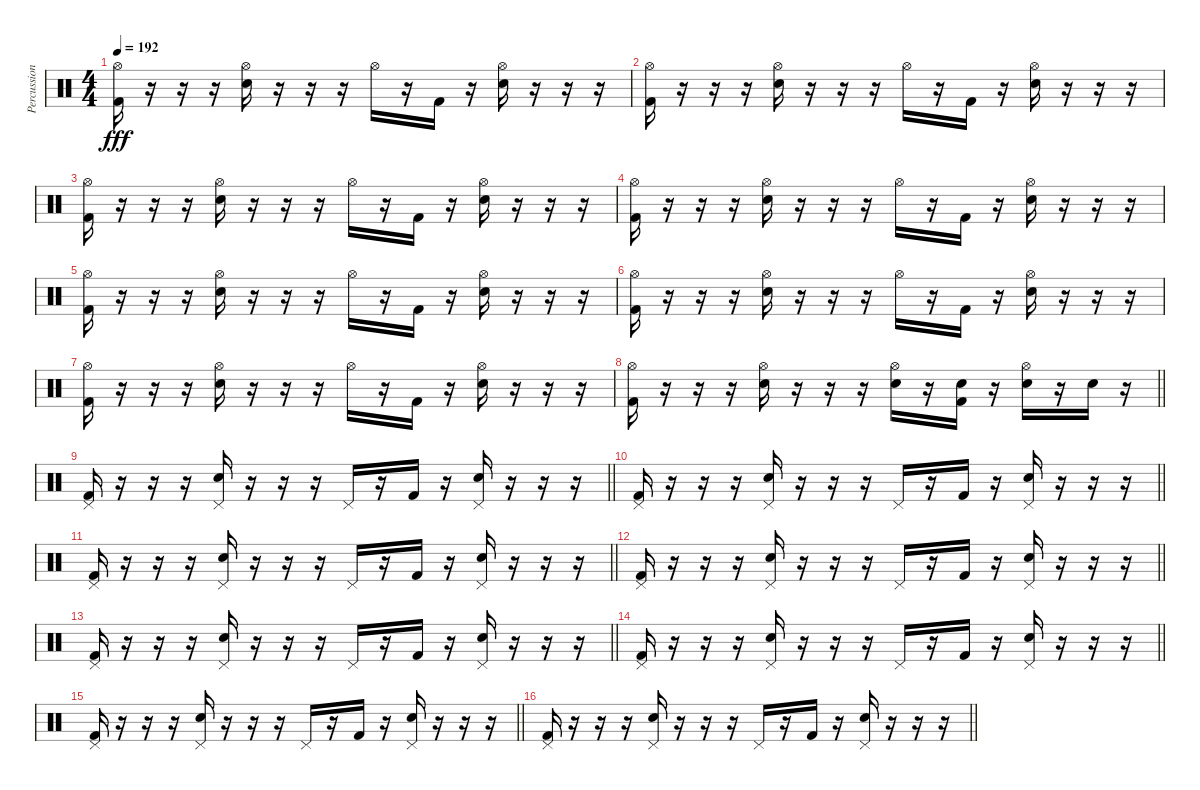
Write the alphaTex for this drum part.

\track ("Percussion" "Percussion") {instrument percussion}
\staff {score}
\articulation defaults
\ts (4 4)
\tempo 192
\clef neutral
\ks c
("Hi-Hat (open)" "Kick (hit) 2").16{dy fff} r.16 r.16 r.16 ("Hi-Hat (open)" "Electric Snare (hit)").16 r.16 r.16 r.16 "Hi-Hat (open)".16 r.16 "Kick (hit) 2".16 r.16 ("Hi-Hat (open)" "Electric Snare (hit)").16 r.16 r.16 r.16 |
("Hi-Hat (open)" "Kick (hit) 2").16 r.16 r.16 r.16 ("Hi-Hat (open)" "Electric Snare (hit)").16 r.16 r.16 r.16 "Hi-Hat (open)".16 r.16 "Kick (hit) 2".16 r.16 ("Hi-Hat (open)" "Electric Snare (hit)").16 r.16 r.16 r.16 |
("Hi-Hat (open)" "Kick (hit) 2").16 r.16 r.16 r.16 ("Hi-Hat (open)" "Electric Snare (hit)").16 r.16 r.16 r.16 "Hi-Hat (open)".16 r.16 "Kick (hit) 2".16 r.16 ("Hi-Hat (open)" "Electric Snare (hit)").16 r.16 r.16 r.16 |
("Hi-Hat (open)" "Kick (hit) 2").16 r.16 r.16 r.16 ("Hi-Hat (open)" "Electric Snare (hit)").16 r.16 r.16 r.16 "Hi-Hat (open)".16 r.16 "Kick (hit) 2".16 r.16 ("Hi-Hat (open)" "Electric Snare (hit)").16 r.16 r.16 r.16 |
("Hi-Hat (open)" "Kick (hit) 2").16 r.16 r.16 r.16 ("Hi-Hat (open)" "Electric Snare (hit)").16 r.16 r.16 r.16 "Hi-Hat (open)".16 r.16 "Kick (hit) 2".16 r.16 ("Hi-Hat (open)" "Electric Snare (hit)").16 r.16 r.16 r.16 |
("Hi-Hat (open)" "Kick (hit) 2").16 r.16 r.16 r.16 ("Hi-Hat (open)" "Electric Snare (hit)").16 r.16 r.16 r.16 "Hi-Hat (open)".16 r.16 "Kick (hit) 2".16 r.16 ("Hi-Hat (open)" "Electric Snare (hit)").16 r.16 r.16 r.16 |
("Hi-Hat (open)" "Kick (hit) 2").16 r.16 r.16 r.16 ("Hi-Hat (open)" "Electric Snare (hit)").16 r.16 r.16 r.16 "Hi-Hat (open)".16 r.16 "Kick (hit) 2".16 r.16 ("Hi-Hat (open)" "Electric Snare (hit)").16 r.16 r.16 r.16 |
\barLineRight lightlight
("Hi-Hat (open)" "Kick (hit) 2").16 r.16 r.16 r.16 ("Hi-Hat (open)" "Electric Snare (hit)").16 r.16 r.16 r.16 ("Hi-Hat (open)" "Electric Snare (hit)").16 r.16 ("Electric Snare (hit)" "Kick (hit) 2").16 r.16 ("Hi-Hat (open)" "Electric Snare (hit)").16 r.16 "Electric Snare (hit)".16 r.16 |
\barLineRight lightlight
("Pedal Hi-Hat (hit)" "Kick (hit) 2").16 r.16 r.16 r.16 ("Pedal Hi-Hat (hit)" "Electric Snare (hit)").16 r.16 r.16 r.16 "Pedal Hi-Hat (hit)".16 r.16 "Kick (hit) 2".16 r.16 ("Pedal Hi-Hat (hit)" "Electric Snare (hit)").16 r.16 r.16 r.16 |
\barLineRight lightlight
("Pedal Hi-Hat (hit)" "Kick (hit) 2").16 r.16 r.16 r.16 ("Pedal Hi-Hat (hit)" "Electric Snare (hit)").16 r.16 r.16 r.16 "Pedal Hi-Hat (hit)".16 r.16 "Kick (hit) 2".16 r.16 ("Pedal Hi-Hat (hit)" "Electric Snare (hit)").16 r.16 r.16 r.16 |
\barLineRight lightlight
("Pedal Hi-Hat (hit)" "Kick (hit) 2").16 r.16 r.16 r.16 ("Pedal Hi-Hat (hit)" "Electric Snare (hit)").16 r.16 r.16 r.16 "Pedal Hi-Hat (hit)".16 r.16 "Kick (hit) 2".16 r.16 ("Pedal Hi-Hat (hit)" "Electric Snare (hit)").16 r.16 r.16 r.16 |
\barLineRight lightlight
("Pedal Hi-Hat (hit)" "Kick (hit) 2").16 r.16 r.16 r.16 ("Pedal Hi-Hat (hit)" "Electric Snare (hit)").16 r.16 r.16 r.16 "Pedal Hi-Hat (hit)".16 r.16 "Kick (hit) 2".16 r.16 ("Pedal Hi-Hat (hit)" "Electric Snare (hit)").16 r.16 r.16 r.16 |
\barLineRight lightlight
("Pedal Hi-Hat (hit)" "Kick (hit) 2").16 r.16 r.16 r.16 ("Pedal Hi-Hat (hit)" "Electric Snare (hit)").16 r.16 r.16 r.16 "Pedal Hi-Hat (hit)".16 r.16 "Kick (hit) 2".16 r.16 ("Pedal Hi-Hat (hit)" "Electric Snare (hit)").16 r.16 r.16 r.16 |
\barLineRight lightlight
("Pedal Hi-Hat (hit)" "Kick (hit) 2").16 r.16 r.16 r.16 ("Pedal Hi-Hat (hit)" "Electric Snare (hit)").16 r.16 r.16 r.16 "Pedal Hi-Hat (hit)".16 r.16 "Kick (hit) 2".16 r.16 ("Pedal Hi-Hat (hit)" "Electric Snare (hit)").16 r.16 r.16 r.16 |
\barLineRight lightlight
("Pedal Hi-Hat (hit)" "Kick (hit) 2").16 r.16 r.16 r.16 ("Pedal Hi-Hat (hit)" "Electric Snare (hit)").16 r.16 r.16 r.16 "Pedal Hi-Hat (hit)".16 r.16 "Kick (hit) 2".16 r.16 ("Pedal Hi-Hat (hit)" "Electric Snare (hit)").16 r.16 r.16 r.16 |
\barLineRight lightlight
("Pedal Hi-Hat (hit)" "Kick (hit) 2").16 r.16 r.16 r.16 ("Pedal Hi-Hat (hit)" "Electric Snare (hit)").16 r.16 r.16 r.16 "Pedal Hi-Hat (hit)".16 r.16 "Kick (hit) 2".16 r.16 ("Pedal Hi-Hat (hit)" "Electric Snare (hit)").16 r.16 r.16 r.16
